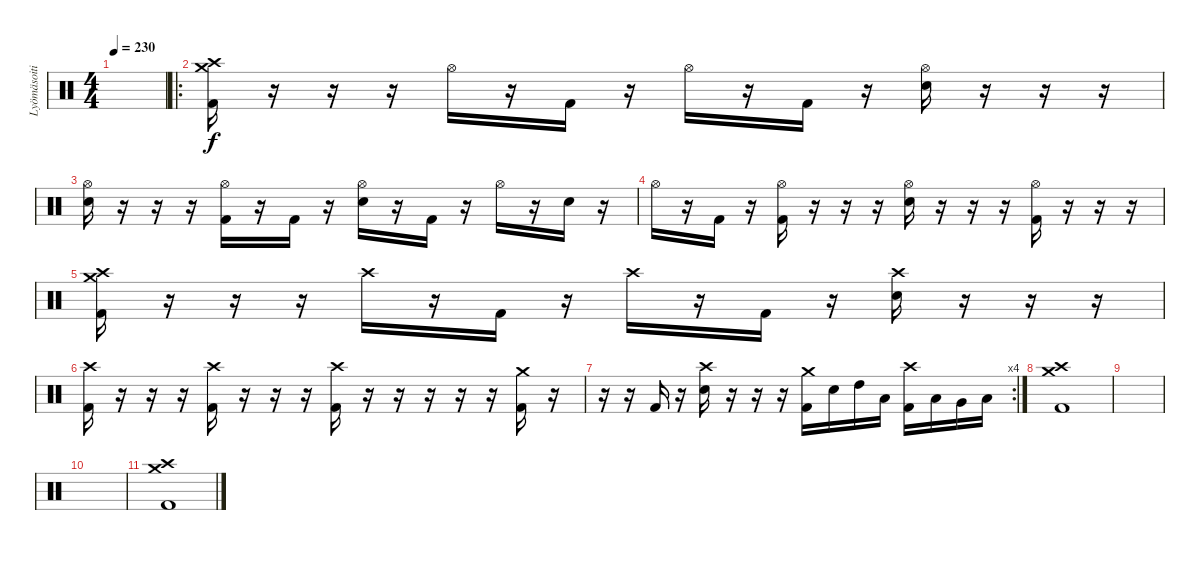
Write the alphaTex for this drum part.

\track ("Lyömäsoitin" "Lyömäsoiti") {instrument percussion}
\staff {score}
\articulation defaults
\ts (4 4)
\tempo 230
\clef neutral
\ks c
|
\ro
("Crash high (hit)" "Crash medium (hit)" "Kick (hit) 2").16 r.16 r.16 r.16 "Hi-Hat (open)".16 r.16 "Kick (hit) 2".16 r.16 "Hi-Hat (open)".16 r.16 "Kick (hit) 2".16 r.16 ("Hi-Hat (open)" "Snare (hit) 2").16 r.16 r.16 r.16 |
("Hi-Hat (open)" "Snare (hit) 2").16 r.16 r.16 r.16 ("Hi-Hat (open)" "Kick (hit) 2").16 r.16 "Kick (hit) 2".16 r.16 ("Hi-Hat (open)" "Snare (hit) 2").16 r.16 "Kick (hit) 2".16 r.16 "Hi-Hat (open)".16 r.16 "Snare (hit) 2".16 r.16 |
"Hi-Hat (open)".16 r.16 "Kick (hit) 2".16 r.16 ("Hi-Hat (open)" "Kick (hit) 2").16 r.16 r.16 r.16 ("Hi-Hat (open)" "Snare (hit) 2").16 r.16 r.16 r.16 ("Hi-Hat (open)" "Kick (hit) 2").16 r.16 r.16 r.16 |
("Crash medium (hit)" "Crash high (hit)" "Kick (hit) 2").16 r.16 r.16 r.16 "Crash high (hit)".16 r.16 "Kick (hit) 2".16 r.16 "Crash high (hit)".16 r.16 "Kick (hit) 2".16 r.16 ("Crash high (hit)" "Snare (hit) 2").16 r.16 r.16 r.16 |
("Crash high (hit)" "Kick (hit) 2").16 r.16 r.16 r.16 ("Crash high (hit)" "Kick (hit) 2").16 r.16 r.16 r.16 ("Crash high (hit)" "Kick (hit) 2").16 r.16 r.16 r.16 r.16 r.16 ("Crash medium (hit)" "Kick (hit) 2").16 r.16 |
\rc 4
r.16 r.16 "Kick (hit) 2".16 r.16 ("Crash high (hit)" "Snare (hit) 2").16 r.16 r.16 r.16 ("Crash medium (hit)" "Kick (hit) 2").16 "Snare (hit) 2".16 "High Tom (hit)".16 "Low Tom (hit)".16 ("Crash high (hit)" "Kick (hit) 2").16 "Low Tom (hit)".16 "Very Low Tom (hit)".16 "Low Floor Tom (hit)".16 |
("Crash medium (hit)" "Crash high (hit)" "Kick (hit) 2").1 |
|
|
("Crash medium (hit)" "Crash high (hit)" "Kick (hit) 2").1
